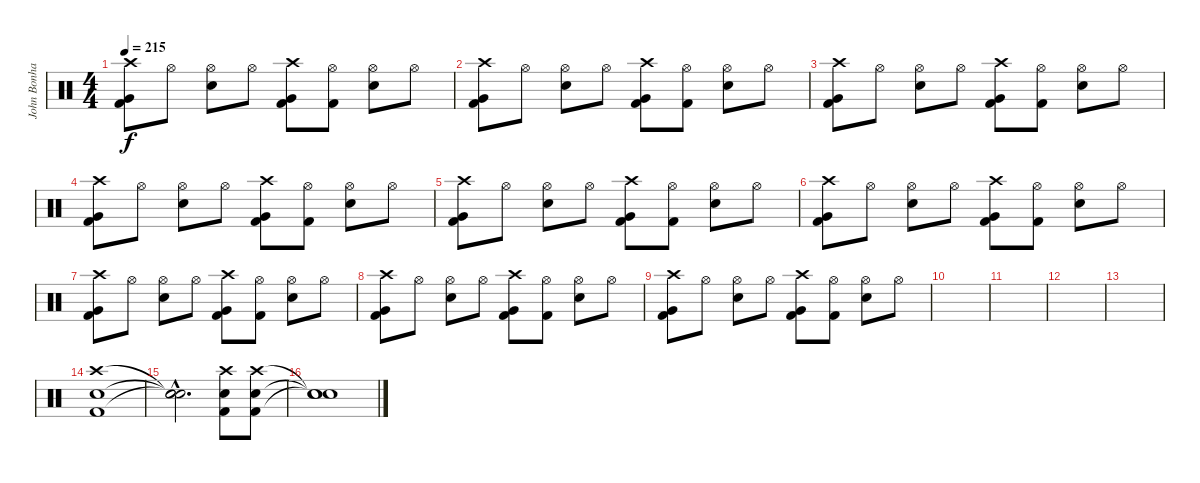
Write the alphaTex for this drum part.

\track ("John Bonham" "John Bonha") {instrument percussion}
\staff {score}
\articulation defaults
\ts (4 4)
\tempo 215
\clef neutral
\ks c
("Crash high (hit)" "Very Low Tom (hit)" "Kick (hit) 2").8{dy f} "Hi-Hat (open)".8 ("Hi-Hat (open)" "Snare (hit) 2").8 "Hi-Hat (open)".8 ("Crash high (hit)" "Very Low Tom (hit)" "Kick (hit) 2").8 ("Hi-Hat (open)" "Kick (hit) 2").8 ("Hi-Hat (open)" "Snare (hit) 2").8 "Hi-Hat (open)".8 |
("Crash high (hit)" "Very Low Tom (hit)" "Kick (hit) 2").8 "Hi-Hat (open)".8 ("Hi-Hat (open)" "Snare (hit) 2").8 "Hi-Hat (open)".8 ("Crash high (hit)" "Very Low Tom (hit)" "Kick (hit) 2").8 ("Hi-Hat (open)" "Kick (hit) 2").8 ("Hi-Hat (open)" "Snare (hit) 2").8 "Hi-Hat (open)".8 |
("Crash high (hit)" "Very Low Tom (hit)" "Kick (hit) 2").8 "Hi-Hat (open)".8 ("Hi-Hat (open)" "Snare (hit) 2").8 "Hi-Hat (open)".8 ("Crash high (hit)" "Very Low Tom (hit)" "Kick (hit) 2").8 ("Hi-Hat (open)" "Kick (hit) 2").8 ("Hi-Hat (open)" "Snare (hit) 2").8 "Hi-Hat (open)".8 |
("Crash high (hit)" "Very Low Tom (hit)" "Kick (hit) 2").8 "Hi-Hat (open)".8 ("Hi-Hat (open)" "Snare (hit) 2").8 "Hi-Hat (open)".8 ("Crash high (hit)" "Very Low Tom (hit)" "Kick (hit) 2").8 ("Hi-Hat (open)" "Kick (hit) 2").8 ("Hi-Hat (open)" "Snare (hit) 2").8 "Hi-Hat (open)".8 |
("Crash high (hit)" "Very Low Tom (hit)" "Kick (hit) 2").8 "Hi-Hat (open)".8 ("Hi-Hat (open)" "Snare (hit) 2").8 "Hi-Hat (open)".8 ("Crash high (hit)" "Very Low Tom (hit)" "Kick (hit) 2").8 ("Hi-Hat (open)" "Kick (hit) 2").8 ("Hi-Hat (open)" "Snare (hit) 2").8 "Hi-Hat (open)".8 |
("Crash high (hit)" "Very Low Tom (hit)" "Kick (hit) 2").8 "Hi-Hat (open)".8 ("Hi-Hat (open)" "Snare (hit) 2").8 "Hi-Hat (open)".8 ("Crash high (hit)" "Very Low Tom (hit)" "Kick (hit) 2").8 ("Hi-Hat (open)" "Kick (hit) 2").8 ("Hi-Hat (open)" "Snare (hit) 2").8 "Hi-Hat (open)".8 |
("Crash high (hit)" "Very Low Tom (hit)" "Kick (hit) 2").8 "Hi-Hat (open)".8 ("Hi-Hat (open)" "Snare (hit) 2").8 "Hi-Hat (open)".8 ("Crash high (hit)" "Very Low Tom (hit)" "Kick (hit) 2").8 ("Hi-Hat (open)" "Kick (hit) 2").8 ("Hi-Hat (open)" "Snare (hit) 2").8 "Hi-Hat (open)".8 |
("Crash high (hit)" "Very Low Tom (hit)" "Kick (hit) 2").8 "Hi-Hat (open)".8 ("Hi-Hat (open)" "Snare (hit) 2").8 "Hi-Hat (open)".8 ("Crash high (hit)" "Very Low Tom (hit)" "Kick (hit) 2").8 ("Hi-Hat (open)" "Kick (hit) 2").8 ("Hi-Hat (open)" "Snare (hit) 2").8 "Hi-Hat (open)".8 |
("Crash high (hit)" "Very Low Tom (hit)" "Kick (hit) 2").8 "Hi-Hat (open)".8 ("Hi-Hat (open)" "Snare (hit) 2").8 "Hi-Hat (open)".8 ("Crash high (hit)" "Very Low Tom (hit)" "Kick (hit) 2").8 ("Hi-Hat (open)" "Kick (hit) 2").8 ("Hi-Hat (open)" "Snare (hit) 2").8 "Hi-Hat (open)".8 |
|
|
|
|
("Crash high (hit)" "Snare (hit) 2" "Kick (hit) 2").1 |
("Snare (hit)"{hac t} "Snare (hit)"{hac t} "Snare (hit)"{hac t}).2{d} ("Crash high (hit)" "Snare (hit) 2" "Kick (hit) 2").8 ("Crash high (hit)" "Snare (hit) 2" "Kick (hit) 2").8 |
("Snare (hit)"{t} "Snare (hit)"{t} "Snare (hit)"{t}).1
